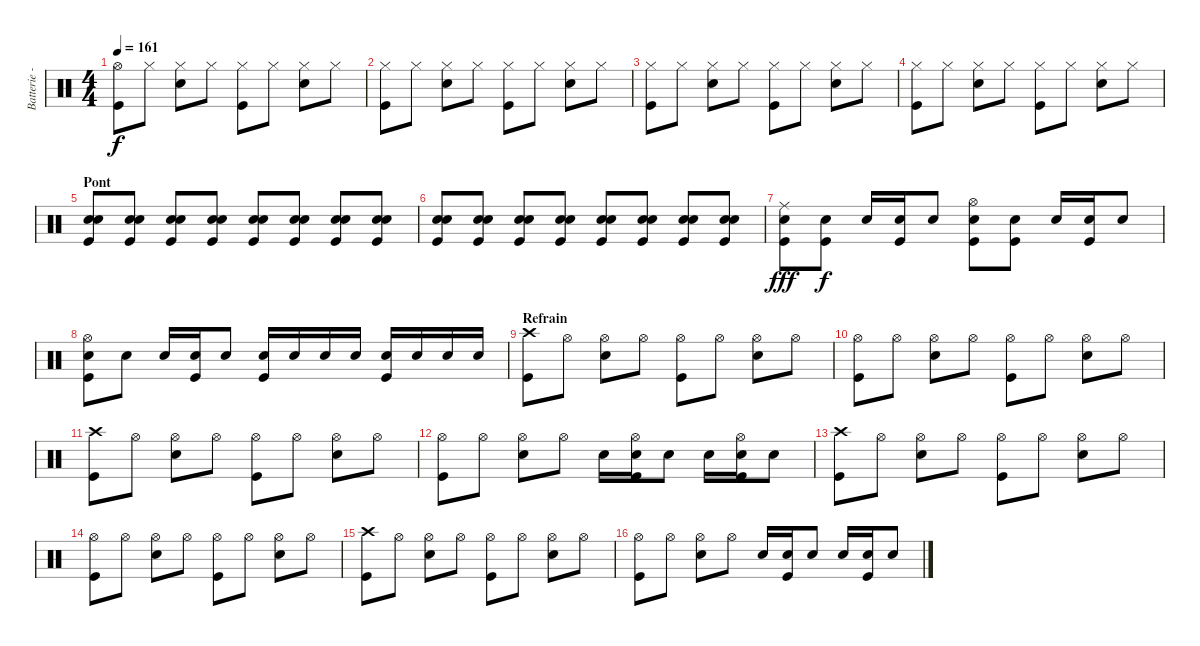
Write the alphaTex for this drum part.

\track ("Batterie - Alex" "Batterie -") {instrument percussion}
\staff {score}
\articulation defaults
\ts (4 4)
\tempo 161
\clef neutral
\ks c
("Hi-Hat (open)" "Kick (hit)").8{dy f} "Hi-Hat (closed)".8 ("Hi-Hat (closed)" "Snare (hit) 2").8 "Hi-Hat (closed)".8 ("Hi-Hat (closed)" "Kick (hit)").8 "Hi-Hat (closed)".8 ("Hi-Hat (closed)" "Snare (hit) 2").8 "Hi-Hat (closed)".8 |
("Hi-Hat (closed)" "Kick (hit)").8 "Hi-Hat (closed)".8 ("Hi-Hat (closed)" "Snare (hit) 2").8 "Hi-Hat (closed)".8 ("Hi-Hat (closed)" "Kick (hit)").8 "Hi-Hat (closed)".8 ("Hi-Hat (closed)" "Snare (hit) 2").8 "Hi-Hat (closed)".8 |
("Hi-Hat (closed)" "Kick (hit)").8 "Hi-Hat (closed)".8 ("Hi-Hat (closed)" "Snare (hit) 2").8 "Hi-Hat (closed)".8 ("Hi-Hat (closed)" "Kick (hit)").8 "Hi-Hat (closed)".8 ("Hi-Hat (closed)" "Snare (hit) 2").8 "Hi-Hat (closed)".8 |
("Hi-Hat (closed)" "Kick (hit)").8 "Hi-Hat (closed)".8 ("Hi-Hat (closed)" "Snare (hit) 2").8 "Hi-Hat (closed)".8 ("Hi-Hat (closed)" "Kick (hit)").8 "Hi-Hat (closed)".8 ("Hi-Hat (closed)" "Snare (hit) 2").8 "Hi-Hat (closed)".8 |
\section ("" "Pont")
("Electric Snare (hit)" "Snare (hit) 2" "Kick (hit)").8 ("Electric Snare (hit)" "Snare (hit) 2" "Kick (hit)").8 ("Electric Snare (hit)" "Snare (hit) 2" "Kick (hit)").8 ("Electric Snare (hit)" "Snare (hit) 2" "Kick (hit)").8 ("Electric Snare (hit)" "Snare (hit) 2" "Kick (hit)").8 ("Electric Snare (hit)" "Snare (hit) 2" "Kick (hit)").8 ("Electric Snare (hit)" "Snare (hit) 2" "Kick (hit)").8 ("Electric Snare (hit)" "Snare (hit) 2" "Kick (hit)").8 |
("Electric Snare (hit)" "Snare (hit) 2" "Kick (hit)").8 ("Electric Snare (hit)" "Snare (hit) 2" "Kick (hit)").8 ("Electric Snare (hit)" "Snare (hit) 2" "Kick (hit)").8 ("Electric Snare (hit)" "Snare (hit) 2" "Kick (hit)").8 ("Electric Snare (hit)" "Snare (hit) 2" "Kick (hit)").8 ("Electric Snare (hit)" "Snare (hit) 2" "Kick (hit)").8 ("Electric Snare (hit)" "Snare (hit) 2" "Kick (hit)").8 ("Electric Snare (hit)" "Snare (hit) 2" "Kick (hit)").8 |
("Ride (middle)" "Electric Snare (hit)" "Kick (hit)").8{dy fff} ("Electric Snare (hit)" "Kick (hit)").8{dy f} "Electric Snare (hit)".16 ("Electric Snare (hit)" "Kick (hit)").16 "Electric Snare (hit)".8 ("Hi-Hat (open)" "Electric Snare (hit)" "Kick (hit)").8 ("Electric Snare (hit)" "Kick (hit)").8 "Electric Snare (hit)".16 ("Electric Snare (hit)" "Kick (hit)").16 "Electric Snare (hit)".8 |
("Hi-Hat (open)" "Electric Snare (hit)" "Kick (hit)").8 "Electric Snare (hit)".8 "Electric Snare (hit)".16 ("Electric Snare (hit)" "Kick (hit)").16 "Electric Snare (hit)".8 ("Electric Snare (hit)" "Kick (hit)").16 "Electric Snare (hit)".16 "Electric Snare (hit)".16 "Electric Snare (hit)".16 ("Electric Snare (hit)" "Kick (hit)").16 "Electric Snare (hit)".16 "Electric Snare (hit)".16 "Electric Snare (hit)".16 |
\section ("" "Refrain")
("Crash high (hit)" "Kick (hit)").8 "Hi-Hat (open)".8 ("Hi-Hat (open)" "Electric Snare (hit)").8 "Hi-Hat (open)".8 ("Hi-Hat (open)" "Kick (hit)").8 "Hi-Hat (open)".8 ("Hi-Hat (open)" "Electric Snare (hit)").8 "Hi-Hat (open)".8 |
("Hi-Hat (open)" "Kick (hit)").8 "Hi-Hat (open)".8 ("Hi-Hat (open)" "Electric Snare (hit)").8 "Hi-Hat (open)".8 ("Hi-Hat (open)" "Kick (hit)").8 "Hi-Hat (open)".8 ("Hi-Hat (open)" "Electric Snare (hit)").8 "Hi-Hat (open)".8 |
("Crash high (hit)" "Kick (hit)").8 "Hi-Hat (open)".8 ("Hi-Hat (open)" "Electric Snare (hit)").8 "Hi-Hat (open)".8 ("Hi-Hat (open)" "Kick (hit)").8 "Hi-Hat (open)".8 ("Hi-Hat (open)" "Electric Snare (hit)").8 "Hi-Hat (open)".8 |
("Hi-Hat (open)" "Kick (hit)").8 "Hi-Hat (open)".8 ("Hi-Hat (open)" "Electric Snare (hit)").8 "Hi-Hat (open)".8 "Electric Snare (hit)".16 ("Hi-Hat (open)" "Electric Snare (hit)" "Kick (hit)").16 "Electric Snare (hit)".8 "Electric Snare (hit)".16 ("Hi-Hat (open)" "Electric Snare (hit)" "Kick (hit)").16 "Electric Snare (hit)".8 |
("Crash high (hit)" "Kick (hit)").8 "Hi-Hat (open)".8 ("Hi-Hat (open)" "Electric Snare (hit)").8 "Hi-Hat (open)".8 ("Hi-Hat (open)" "Kick (hit)").8 "Hi-Hat (open)".8 ("Hi-Hat (open)" "Electric Snare (hit)").8 "Hi-Hat (open)".8 |
("Hi-Hat (open)" "Kick (hit)").8 "Hi-Hat (open)".8 ("Hi-Hat (open)" "Electric Snare (hit)").8 "Hi-Hat (open)".8 ("Hi-Hat (open)" "Kick (hit)").8 "Hi-Hat (open)".8 ("Hi-Hat (open)" "Electric Snare (hit)").8 "Hi-Hat (open)".8 |
("Crash high (hit)" "Kick (hit)").8 "Hi-Hat (open)".8 ("Hi-Hat (open)" "Electric Snare (hit)").8 "Hi-Hat (open)".8 ("Hi-Hat (open)" "Kick (hit)").8 "Hi-Hat (open)".8 ("Hi-Hat (open)" "Electric Snare (hit)").8 "Hi-Hat (open)".8 |
("Hi-Hat (open)" "Kick (hit)").8 "Hi-Hat (open)".8 ("Hi-Hat (open)" "Electric Snare (hit)").8 "Hi-Hat (open)".8 "Electric Snare (hit)".16 ("Electric Snare (hit)" "Kick (hit)").16 "Electric Snare (hit)".8 "Electric Snare (hit)".16 ("Electric Snare (hit)" "Kick (hit)").16 "Electric Snare (hit)".8
